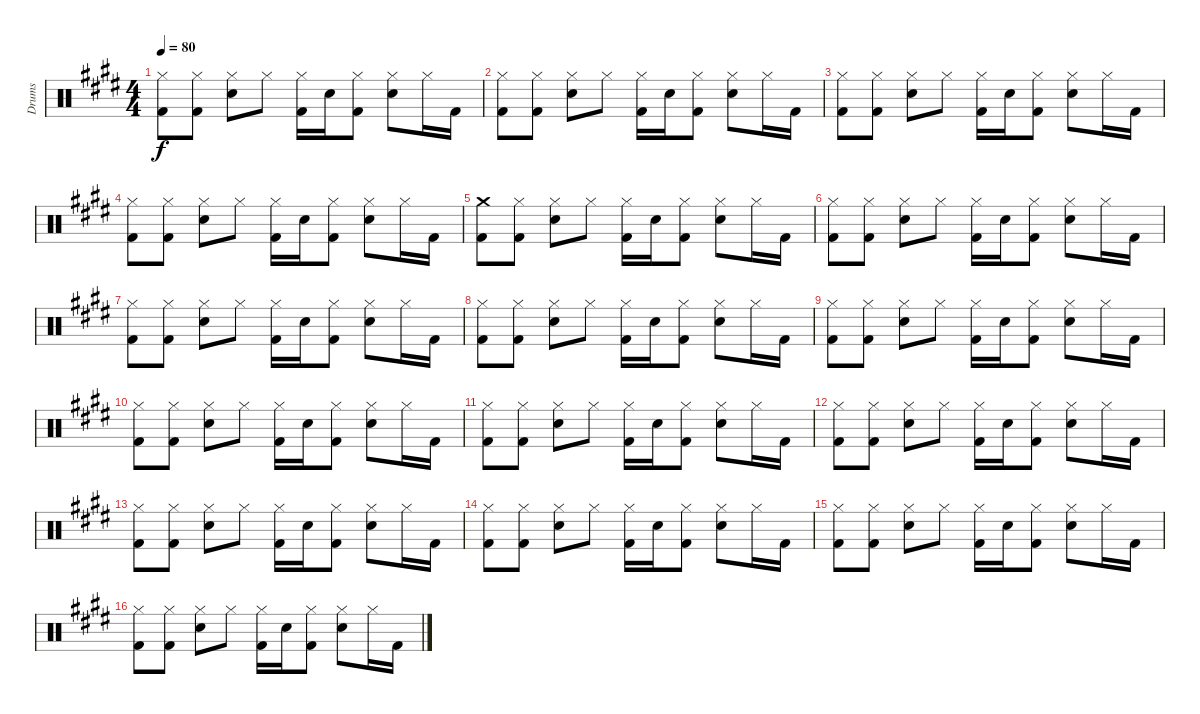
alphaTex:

\track ("Drums" "Drums") {instrument percussion}
\staff {score}
\articulation defaults
\ts (4 4)
\tempo 80
\clef neutral
\ks c#minor
("Kick (hit) 2" "Hi-Hat (closed)").8{dy f} ("Kick (hit) 2" "Hi-Hat (closed)").8 ("Snare (hit) 2" "Hi-Hat (closed)").8 "Hi-Hat (closed)".8 ("Kick (hit) 2" "Hi-Hat (closed)").16 "Snare (hit) 2".16 ("Kick (hit) 2" "Hi-Hat (closed)").8 ("Snare (hit) 2" "Hi-Hat (closed)").8 "Hi-Hat (closed)".16 "Kick (hit) 2".16 |
("Kick (hit) 2" "Hi-Hat (closed)").8 ("Kick (hit) 2" "Hi-Hat (closed)").8 ("Snare (hit) 2" "Hi-Hat (closed)").8 "Hi-Hat (closed)".8 ("Kick (hit) 2" "Hi-Hat (closed)").16 "Snare (hit) 2".16 ("Kick (hit) 2" "Hi-Hat (closed)").8 ("Snare (hit) 2" "Hi-Hat (closed)").8 "Hi-Hat (closed)".16 "Kick (hit) 2".16 |
("Kick (hit) 2" "Hi-Hat (closed)").8 ("Kick (hit) 2" "Hi-Hat (closed)").8 ("Snare (hit) 2" "Hi-Hat (closed)").8 "Hi-Hat (closed)".8 ("Kick (hit) 2" "Hi-Hat (closed)").16 "Snare (hit) 2".16 ("Kick (hit) 2" "Hi-Hat (closed)").8 ("Snare (hit) 2" "Hi-Hat (closed)").8 "Hi-Hat (closed)".16 "Kick (hit) 2".16 |
("Kick (hit) 2" "Hi-Hat (closed)").8 ("Kick (hit) 2" "Hi-Hat (closed)").8 ("Snare (hit) 2" "Hi-Hat (closed)").8 "Hi-Hat (closed)".8 ("Kick (hit) 2" "Hi-Hat (closed)").16 "Snare (hit) 2".16 ("Kick (hit) 2" "Hi-Hat (closed)").8 ("Snare (hit) 2" "Hi-Hat (closed)").8 "Hi-Hat (closed)".16 "Kick (hit) 2".16 |
("Kick (hit) 2" "Crash medium (hit)").8 ("Kick (hit) 2" "Hi-Hat (closed)").8 ("Snare (hit) 2" "Hi-Hat (closed)").8 "Hi-Hat (closed)".8 ("Kick (hit) 2" "Hi-Hat (closed)").16 "Snare (hit) 2".16 ("Kick (hit) 2" "Hi-Hat (closed)").8 ("Snare (hit) 2" "Hi-Hat (closed)").8 "Hi-Hat (closed)".16 "Kick (hit) 2".16 |
("Kick (hit) 2" "Hi-Hat (closed)").8 ("Kick (hit) 2" "Hi-Hat (closed)").8 ("Snare (hit) 2" "Hi-Hat (closed)").8 "Hi-Hat (closed)".8 ("Kick (hit) 2" "Hi-Hat (closed)").16 "Snare (hit) 2".16 ("Kick (hit) 2" "Hi-Hat (closed)").8 ("Snare (hit) 2" "Hi-Hat (closed)").8 "Hi-Hat (closed)".16 "Kick (hit) 2".16 |
("Kick (hit) 2" "Hi-Hat (closed)").8 ("Kick (hit) 2" "Hi-Hat (closed)").8 ("Snare (hit) 2" "Hi-Hat (closed)").8 "Hi-Hat (closed)".8 ("Kick (hit) 2" "Hi-Hat (closed)").16 "Snare (hit) 2".16 ("Kick (hit) 2" "Hi-Hat (closed)").8 ("Snare (hit) 2" "Hi-Hat (closed)").8 "Hi-Hat (closed)".16 "Kick (hit) 2".16 |
("Kick (hit) 2" "Hi-Hat (closed)").8 ("Kick (hit) 2" "Hi-Hat (closed)").8 ("Snare (hit) 2" "Hi-Hat (closed)").8 "Hi-Hat (closed)".8 ("Kick (hit) 2" "Hi-Hat (closed)").16 "Snare (hit) 2".16 ("Kick (hit) 2" "Hi-Hat (closed)").8 ("Snare (hit) 2" "Hi-Hat (closed)").8 "Hi-Hat (closed)".16 "Kick (hit) 2".16 |
("Kick (hit) 2" "Hi-Hat (closed)").8 ("Kick (hit) 2" "Hi-Hat (closed)").8 ("Snare (hit) 2" "Hi-Hat (closed)").8 "Hi-Hat (closed)".8 ("Kick (hit) 2" "Hi-Hat (closed)").16 "Snare (hit) 2".16 ("Kick (hit) 2" "Hi-Hat (closed)").8 ("Snare (hit) 2" "Hi-Hat (closed)").8 "Hi-Hat (closed)".16 "Kick (hit) 2".16 |
("Kick (hit) 2" "Hi-Hat (closed)").8 ("Kick (hit) 2" "Hi-Hat (closed)").8 ("Snare (hit) 2" "Hi-Hat (closed)").8 "Hi-Hat (closed)".8 ("Kick (hit) 2" "Hi-Hat (closed)").16 "Snare (hit) 2".16 ("Kick (hit) 2" "Hi-Hat (closed)").8 ("Snare (hit) 2" "Hi-Hat (closed)").8 "Hi-Hat (closed)".16 "Kick (hit) 2".16 |
("Kick (hit) 2" "Hi-Hat (closed)").8 ("Kick (hit) 2" "Hi-Hat (closed)").8 ("Snare (hit) 2" "Hi-Hat (closed)").8 "Hi-Hat (closed)".8 ("Kick (hit) 2" "Hi-Hat (closed)").16 "Snare (hit) 2".16 ("Kick (hit) 2" "Hi-Hat (closed)").8 ("Snare (hit) 2" "Hi-Hat (closed)").8 "Hi-Hat (closed)".16 "Kick (hit) 2".16 |
("Kick (hit) 2" "Hi-Hat (closed)").8 ("Kick (hit) 2" "Hi-Hat (closed)").8 ("Snare (hit) 2" "Hi-Hat (closed)").8 "Hi-Hat (closed)".8 ("Kick (hit) 2" "Hi-Hat (closed)").16 "Snare (hit) 2".16 ("Kick (hit) 2" "Hi-Hat (closed)").8 ("Snare (hit) 2" "Hi-Hat (closed)").8 "Hi-Hat (closed)".16 "Kick (hit) 2".16 |
("Kick (hit) 2" "Hi-Hat (closed)").8 ("Kick (hit) 2" "Hi-Hat (closed)").8 ("Snare (hit) 2" "Hi-Hat (closed)").8 "Hi-Hat (closed)".8 ("Kick (hit) 2" "Hi-Hat (closed)").16 "Snare (hit) 2".16 ("Kick (hit) 2" "Hi-Hat (closed)").8 ("Snare (hit) 2" "Hi-Hat (closed)").8 "Hi-Hat (closed)".16 "Kick (hit) 2".16 |
("Kick (hit) 2" "Hi-Hat (closed)").8 ("Kick (hit) 2" "Hi-Hat (closed)").8 ("Snare (hit) 2" "Hi-Hat (closed)").8 "Hi-Hat (closed)".8 ("Kick (hit) 2" "Hi-Hat (closed)").16 "Snare (hit) 2".16 ("Kick (hit) 2" "Hi-Hat (closed)").8 ("Snare (hit) 2" "Hi-Hat (closed)").8 "Hi-Hat (closed)".16 "Kick (hit) 2".16 |
("Kick (hit) 2" "Hi-Hat (closed)").8 ("Kick (hit) 2" "Hi-Hat (closed)").8 ("Snare (hit) 2" "Hi-Hat (closed)").8 "Hi-Hat (closed)".8 ("Kick (hit) 2" "Hi-Hat (closed)").16 "Snare (hit) 2".16 ("Kick (hit) 2" "Hi-Hat (closed)").8 ("Snare (hit) 2" "Hi-Hat (closed)").8 "Hi-Hat (closed)".16 "Kick (hit) 2".16 |
("Kick (hit) 2" "Hi-Hat (closed)").8 ("Kick (hit) 2" "Hi-Hat (closed)").8 ("Snare (hit) 2" "Hi-Hat (closed)").8 "Hi-Hat (closed)".8 ("Kick (hit) 2" "Hi-Hat (closed)").16 "Snare (hit) 2".16 ("Kick (hit) 2" "Hi-Hat (closed)").8 ("Snare (hit) 2" "Hi-Hat (closed)").8 "Hi-Hat (closed)".16 "Kick (hit) 2".16
